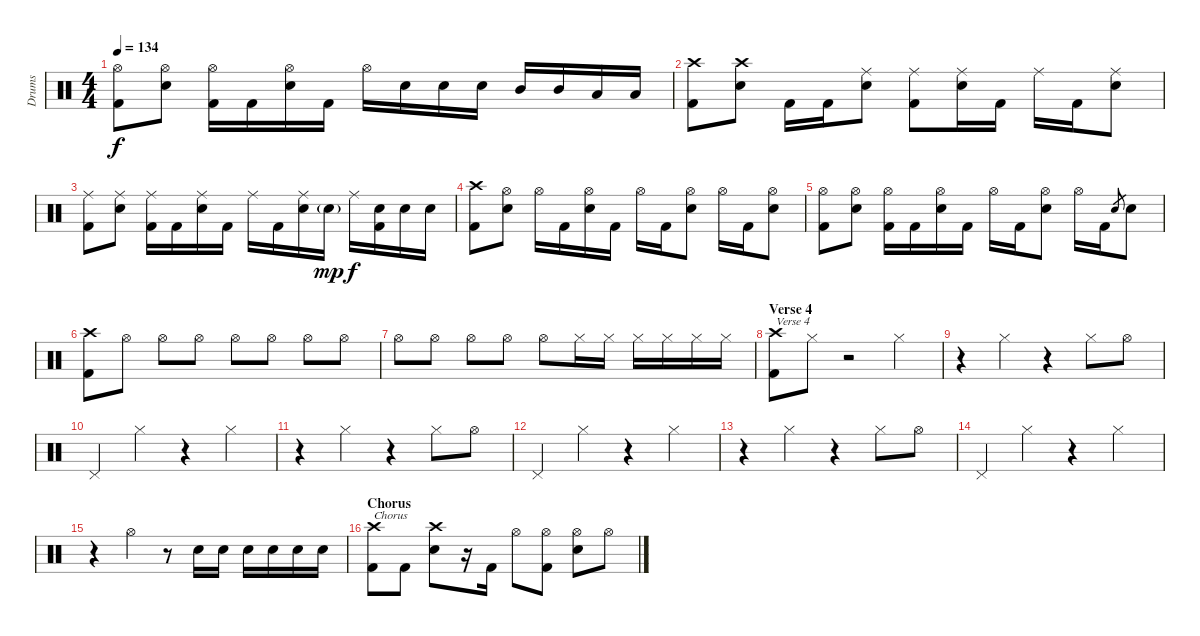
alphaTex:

\track ("Drums" "Drums") {instrument percussion}
\staff {score}
\articulation defaults
\ts (4 4)
\tempo 134
\clef neutral
\ks c
("Hi-Hat (open)" "Kick (hit) 2").8{dy f} ("Hi-Hat (open)" "Electric Snare (hit)").8 ("Hi-Hat (open)" "Kick (hit) 2").16 "Kick (hit) 2".16 ("Hi-Hat (open)" "Electric Snare (hit)").16 "Kick (hit) 2".16 "Hi-Hat (open)".16 "Electric Snare (hit)".16 "Electric Snare (hit)".16 "Electric Snare (hit)".16 "Mid Tom (hit)".16 "Mid Tom (hit)".16 "Low Floor Tom (hit)".16 "Low Floor Tom (hit)".16 |
("Crash high (hit)" "Kick (hit) 2").8 ("Crash high (hit)" "Electric Snare (hit)").8 "Kick (hit) 2".16 "Kick (hit) 2".16 ("Ride (middle)" "Electric Snare (hit)").8 ("Ride (middle)" "Kick (hit) 2").8 ("Ride (middle)" "Electric Snare (hit)").16 "Kick (hit) 2".16 "Ride (middle)".16 "Kick (hit) 2".16 ("Ride (middle)" "Electric Snare (hit)").8 |
("Ride (middle)" "Kick (hit) 2").8 ("Ride (middle)" "Electric Snare (hit)").8 ("Ride (middle)" "Kick (hit) 2").16 "Kick (hit) 2".16 ("Ride (middle)" "Electric Snare (hit)").16 "Kick (hit) 2".16 "Ride (middle)".16 "Kick (hit) 2".16 ("Ride (middle)" "Electric Snare (hit)").16 "Electric Snare (hit)"{g}.16{dy mp} "Ride (middle)".16{dy f} ("Electric Snare (hit)" "Kick (hit) 2").16 "Electric Snare (hit)".16 "Electric Snare (hit)".16 |
("Crash high (hit)" "Kick (hit) 2").8 ("Hi-Hat (open)" "Electric Snare (hit)").8 "Hi-Hat (open)".16 "Kick (hit) 2".16 ("Hi-Hat (open)" "Electric Snare (hit)").16 "Kick (hit) 2".16 "Hi-Hat (open)".16 "Kick (hit) 2".16 ("Hi-Hat (open)" "Electric Snare (hit)").8 "Hi-Hat (open)".16 "Kick (hit) 2".16 ("Hi-Hat (open)" "Electric Snare (hit)").8 |
("Hi-Hat (open)" "Kick (hit) 2").8 ("Hi-Hat (open)" "Electric Snare (hit)").8 ("Hi-Hat (open)" "Kick (hit) 2").16 "Kick (hit) 2".16 ("Hi-Hat (open)" "Electric Snare (hit)").16 "Kick (hit) 2".16 "Hi-Hat (open)".16 "Kick (hit) 2".16 ("Hi-Hat (open)" "Electric Snare (hit)").8 "Hi-Hat (open)".16 "Kick (hit) 2".16 "Electric Snare (hit)".8{gr} "Electric Snare (hit)".8 |
("Crash high (hit)" "Kick (hit) 2").8 "Hi-Hat (open)".8 "Hi-Hat (open)".8 "Hi-Hat (open)".8 "Hi-Hat (open)".8 "Hi-Hat (open)".8 "Hi-Hat (open)".8 "Hi-Hat (open)".8 |
"Hi-Hat (open)".8 "Hi-Hat (open)".8 "Hi-Hat (open)".8 "Hi-Hat (open)".8 "Hi-Hat (open)".8 "Hi-Hat (closed)".16 "Hi-Hat (closed)".16 "Hi-Hat (closed)".16 "Hi-Hat (closed)".16 "Hi-Hat (closed)".16 "Hi-Hat (closed)".16 |
\section ("" "Verse 4")
("Crash high (hit)" "Kick (hit) 2").8{txt "Verse 4"} "Hi-Hat (closed)".8 r.2 "Hi-Hat (closed)".4 |
r.4 "Hi-Hat (closed)".4 r.4 "Hi-Hat (closed)".8 "Hi-Hat (open)".8 |
"Pedal Hi-Hat (hit)".4 "Hi-Hat (closed)".4 r.4 "Hi-Hat (closed)".4 |
r.4 "Hi-Hat (closed)".4 r.4 "Hi-Hat (closed)".8 "Hi-Hat (open)".8 |
"Pedal Hi-Hat (hit)".4 "Hi-Hat (closed)".4 r.4 "Hi-Hat (closed)".4 |
r.4 "Hi-Hat (closed)".4 r.4 "Hi-Hat (closed)".8 "Hi-Hat (open)".8 |
"Pedal Hi-Hat (hit)".4 "Hi-Hat (closed)".4 r.4 "Hi-Hat (closed)".4 |
r.4 "Hi-Hat (open)".4 r.8 "Electric Snare (hit)".16 "Electric Snare (hit)".16 "Electric Snare (hit)".16 "Electric Snare (hit)".16 "Electric Snare (hit)".16 "Electric Snare (hit)".16 |
\section ("" "Chorus")
("Crash high (hit)" "Kick (hit) 2").8{txt "Chorus"} "Kick (hit) 2".8 ("Crash high (hit)" "Electric Snare (hit)").8 r.16 "Kick (hit) 2".16 "Hi-Hat (open)".8 ("Hi-Hat (open)" "Kick (hit) 2").8 ("Hi-Hat (open)" "Electric Snare (hit)").8 "Hi-Hat (open)".8
